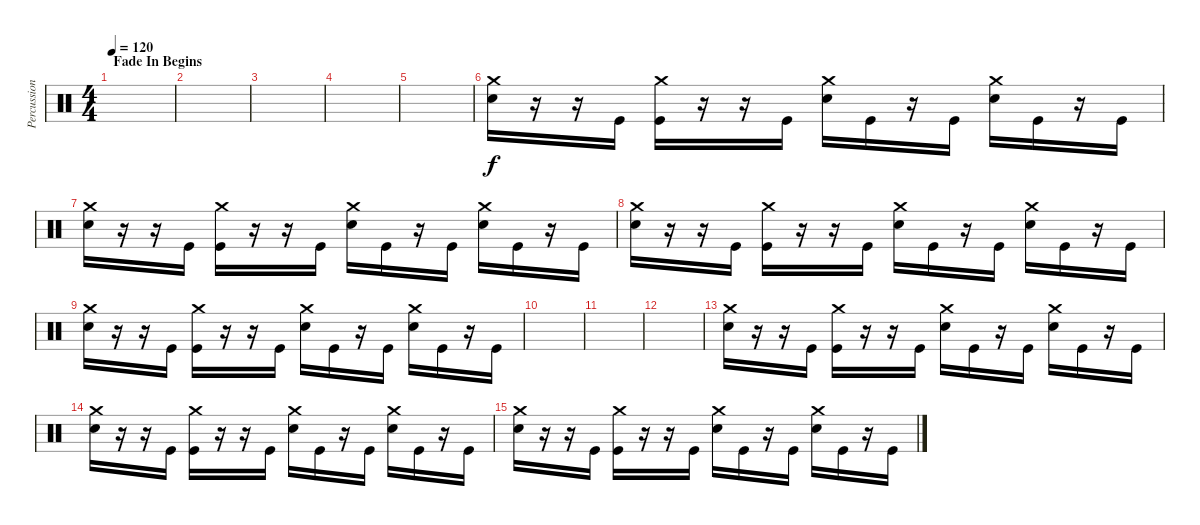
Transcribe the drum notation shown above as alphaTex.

\track ("Percussion" "Percussion") {instrument percussion}
\staff {score}
\articulation defaults
\ts (4 4)
\section ("" "Fade In Begins")
\tempo 120
\clef neutral
\ks c
|
|
|
|
|
("Crash medium (hit)" "Electric Snare (hit)").16 r.16 r.16 "Kick (hit)".16 ("Crash medium (hit)" "Kick (hit)").16 r.16 r.16 "Kick (hit)".16 ("Crash medium (hit)" "Electric Snare (hit)").16 "Kick (hit)".16 r.16 "Kick (hit)".16 ("Crash medium (hit)" "Electric Snare (hit)").16 "Kick (hit)".16 r.16 "Kick (hit)".16 |
("Crash medium (hit)" "Electric Snare (hit)").16 r.16 r.16 "Kick (hit)".16 ("Crash medium (hit)" "Kick (hit)").16 r.16 r.16 "Kick (hit)".16 ("Crash medium (hit)" "Electric Snare (hit)").16 "Kick (hit)".16 r.16 "Kick (hit)".16 ("Crash medium (hit)" "Electric Snare (hit)").16 "Kick (hit)".16 r.16 "Kick (hit)".16 |
("Crash medium (hit)" "Electric Snare (hit)").16 r.16 r.16 "Kick (hit)".16 ("Crash medium (hit)" "Kick (hit)").16 r.16 r.16 "Kick (hit)".16 ("Crash medium (hit)" "Electric Snare (hit)").16 "Kick (hit)".16 r.16 "Kick (hit)".16 ("Crash medium (hit)" "Electric Snare (hit)").16 "Kick (hit)".16 r.16 "Kick (hit)".16 |
("Crash medium (hit)" "Electric Snare (hit)").16 r.16 r.16 "Kick (hit)".16 ("Crash medium (hit)" "Kick (hit)").16 r.16 r.16 "Kick (hit)".16 ("Crash medium (hit)" "Electric Snare (hit)").16 "Kick (hit)".16 r.16 "Kick (hit)".16 ("Crash medium (hit)" "Electric Snare (hit)").16 "Kick (hit)".16 r.16 "Kick (hit)".16 |
|
|
|
("Crash medium (hit)" "Electric Snare (hit)").16 r.16 r.16 "Kick (hit)".16 ("Crash medium (hit)" "Kick (hit)").16 r.16 r.16 "Kick (hit)".16 ("Crash medium (hit)" "Electric Snare (hit)").16 "Kick (hit)".16 r.16 "Kick (hit)".16 ("Crash medium (hit)" "Electric Snare (hit)").16 "Kick (hit)".16 r.16 "Kick (hit)".16 |
("Crash medium (hit)" "Electric Snare (hit)").16 r.16 r.16 "Kick (hit)".16 ("Crash medium (hit)" "Kick (hit)").16 r.16 r.16 "Kick (hit)".16 ("Crash medium (hit)" "Electric Snare (hit)").16 "Kick (hit)".16 r.16 "Kick (hit)".16 ("Crash medium (hit)" "Electric Snare (hit)").16 "Kick (hit)".16 r.16 "Kick (hit)".16 |
("Crash medium (hit)" "Electric Snare (hit)").16 r.16 r.16 "Kick (hit)".16 ("Crash medium (hit)" "Kick (hit)").16 r.16 r.16 "Kick (hit)".16 ("Crash medium (hit)" "Electric Snare (hit)").16 "Kick (hit)".16 r.16 "Kick (hit)".16 ("Crash medium (hit)" "Electric Snare (hit)").16 "Kick (hit)".16 r.16 "Kick (hit)".16
